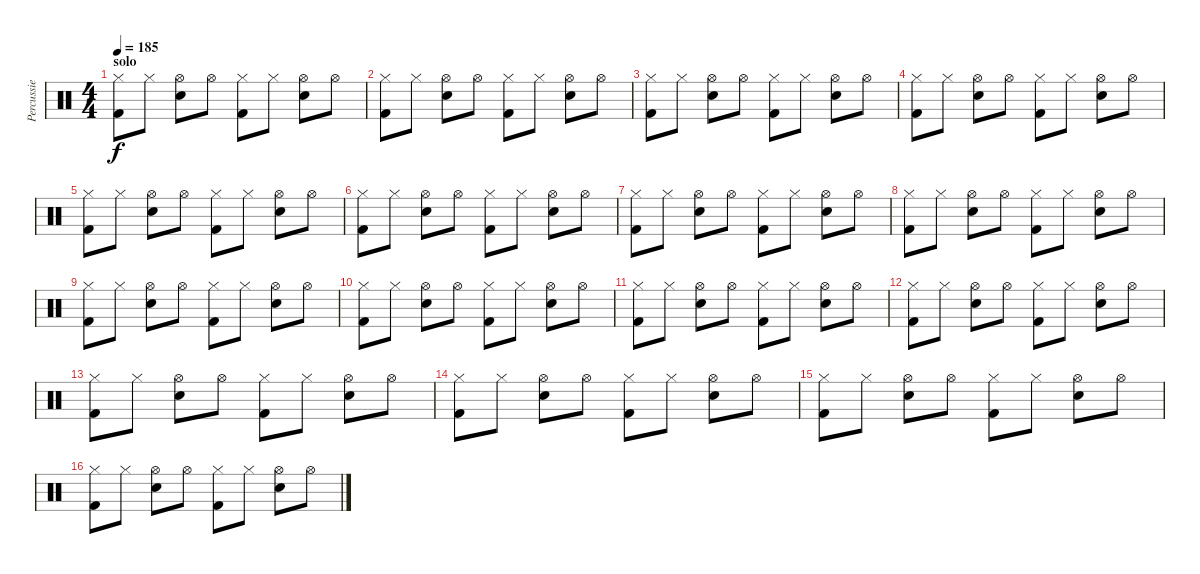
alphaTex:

\track ("Percussie" "Percussie") {instrument percussion}
\staff {score}
\articulation defaults
\ts (4 4)
\section ("" "solo")
\tempo 185
\clef neutral
\ks c
("Hi-Hat (closed)" "Kick (hit) 2").8{dy f} "Hi-Hat (closed)".8 ("Hi-Hat (open)" "Snare (hit) 2").8 "Hi-Hat (open)".8 ("Hi-Hat (closed)" "Kick (hit) 2").8 "Hi-Hat (closed)".8 ("Hi-Hat (open)" "Snare (hit) 2").8 "Hi-Hat (open)".8 |
("Hi-Hat (closed)" "Kick (hit) 2").8 "Hi-Hat (closed)".8 ("Hi-Hat (open)" "Snare (hit) 2").8 "Hi-Hat (open)".8 ("Hi-Hat (closed)" "Kick (hit) 2").8 "Hi-Hat (closed)".8 ("Hi-Hat (open)" "Snare (hit) 2").8 "Hi-Hat (open)".8 |
("Hi-Hat (closed)" "Kick (hit) 2").8 "Hi-Hat (closed)".8 ("Hi-Hat (open)" "Snare (hit) 2").8 "Hi-Hat (open)".8 ("Hi-Hat (closed)" "Kick (hit) 2").8 "Hi-Hat (closed)".8 ("Hi-Hat (open)" "Snare (hit) 2").8 "Hi-Hat (open)".8 |
("Hi-Hat (closed)" "Kick (hit) 2").8 "Hi-Hat (closed)".8 ("Hi-Hat (open)" "Snare (hit) 2").8 "Hi-Hat (open)".8 ("Hi-Hat (closed)" "Kick (hit) 2").8 "Hi-Hat (closed)".8 ("Hi-Hat (open)" "Snare (hit) 2").8 "Hi-Hat (open)".8 |
("Hi-Hat (closed)" "Kick (hit) 2").8 "Hi-Hat (closed)".8 ("Hi-Hat (open)" "Snare (hit) 2").8 "Hi-Hat (open)".8 ("Hi-Hat (closed)" "Kick (hit) 2").8 "Hi-Hat (closed)".8 ("Hi-Hat (open)" "Snare (hit) 2").8 "Hi-Hat (open)".8 |
("Hi-Hat (closed)" "Kick (hit) 2").8 "Hi-Hat (closed)".8 ("Hi-Hat (open)" "Snare (hit) 2").8 "Hi-Hat (open)".8 ("Hi-Hat (closed)" "Kick (hit) 2").8 "Hi-Hat (closed)".8 ("Hi-Hat (open)" "Snare (hit) 2").8 "Hi-Hat (open)".8 |
("Hi-Hat (closed)" "Kick (hit) 2").8 "Hi-Hat (closed)".8 ("Hi-Hat (open)" "Snare (hit) 2").8 "Hi-Hat (open)".8 ("Hi-Hat (closed)" "Kick (hit) 2").8 "Hi-Hat (closed)".8 ("Hi-Hat (open)" "Snare (hit) 2").8 "Hi-Hat (open)".8 |
("Hi-Hat (closed)" "Kick (hit) 2").8 "Hi-Hat (closed)".8 ("Hi-Hat (open)" "Snare (hit) 2").8 "Hi-Hat (open)".8 ("Hi-Hat (closed)" "Kick (hit) 2").8 "Hi-Hat (closed)".8 ("Hi-Hat (open)" "Snare (hit) 2").8 "Hi-Hat (open)".8 |
("Hi-Hat (closed)" "Kick (hit) 2").8 "Hi-Hat (closed)".8 ("Hi-Hat (open)" "Snare (hit) 2").8 "Hi-Hat (open)".8 ("Hi-Hat (closed)" "Kick (hit) 2").8 "Hi-Hat (closed)".8 ("Hi-Hat (open)" "Snare (hit) 2").8 "Hi-Hat (open)".8 |
("Hi-Hat (closed)" "Kick (hit) 2").8 "Hi-Hat (closed)".8 ("Hi-Hat (open)" "Snare (hit) 2").8 "Hi-Hat (open)".8 ("Hi-Hat (closed)" "Kick (hit) 2").8 "Hi-Hat (closed)".8 ("Hi-Hat (open)" "Snare (hit) 2").8 "Hi-Hat (open)".8 |
("Hi-Hat (closed)" "Kick (hit) 2").8 "Hi-Hat (closed)".8 ("Hi-Hat (open)" "Snare (hit) 2").8 "Hi-Hat (open)".8 ("Hi-Hat (closed)" "Kick (hit) 2").8 "Hi-Hat (closed)".8 ("Hi-Hat (open)" "Snare (hit) 2").8 "Hi-Hat (open)".8 |
("Hi-Hat (closed)" "Kick (hit) 2").8 "Hi-Hat (closed)".8 ("Hi-Hat (open)" "Snare (hit) 2").8 "Hi-Hat (open)".8 ("Hi-Hat (closed)" "Kick (hit) 2").8 "Hi-Hat (closed)".8 ("Hi-Hat (open)" "Snare (hit) 2").8 "Hi-Hat (open)".8 |
("Hi-Hat (closed)" "Kick (hit) 2").8 "Hi-Hat (closed)".8 ("Hi-Hat (open)" "Snare (hit) 2").8 "Hi-Hat (open)".8 ("Hi-Hat (closed)" "Kick (hit) 2").8 "Hi-Hat (closed)".8 ("Hi-Hat (open)" "Snare (hit) 2").8 "Hi-Hat (open)".8 |
("Hi-Hat (closed)" "Kick (hit) 2").8 "Hi-Hat (closed)".8 ("Hi-Hat (open)" "Snare (hit) 2").8 "Hi-Hat (open)".8 ("Hi-Hat (closed)" "Kick (hit) 2").8 "Hi-Hat (closed)".8 ("Hi-Hat (open)" "Snare (hit) 2").8 "Hi-Hat (open)".8 |
("Hi-Hat (closed)" "Kick (hit) 2").8 "Hi-Hat (closed)".8 ("Hi-Hat (open)" "Snare (hit) 2").8 "Hi-Hat (open)".8 ("Hi-Hat (closed)" "Kick (hit) 2").8 "Hi-Hat (closed)".8 ("Hi-Hat (open)" "Snare (hit) 2").8 "Hi-Hat (open)".8 |
("Hi-Hat (closed)" "Kick (hit) 2").8 "Hi-Hat (closed)".8 ("Hi-Hat (open)" "Snare (hit) 2").8 "Hi-Hat (open)".8 ("Hi-Hat (closed)" "Kick (hit) 2").8 "Hi-Hat (closed)".8 ("Hi-Hat (open)" "Snare (hit) 2").8 "Hi-Hat (open)".8
